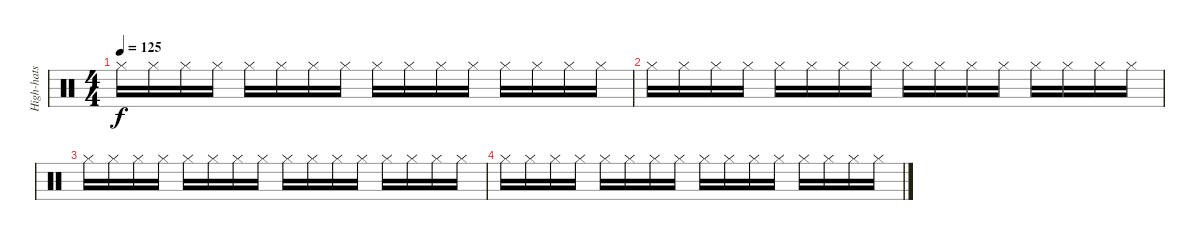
\track ("High-hats" "High-hats") {instrument percussion}
\staff {score}
\articulation defaults
\ts (4 4)
\tempo 125
\clef neutral
\ks c "Hi-Hat (closed)".16{dy f} "Hi-Hat (closed)".16 "Hi-Hat (closed)".16 "Hi-Hat (closed)".16 "Hi-Hat (closed)".16 "Hi-Hat (closed)".16 "Hi-Hat (closed)".16 "Hi-Hat (closed)".16 "Hi-Hat (closed)".16 "Hi-Hat (closed)".16 "Hi-Hat (closed)".16 "Hi-Hat (closed)".16 "Hi-Hat (closed)".16 "Hi-Hat (closed)".16 "Hi-Hat (closed)".16 "Hi-Hat (closed)".16
|
"Hi-Hat (closed)".16 "Hi-Hat (closed)".16 "Hi-Hat (closed)".16 "Hi-Hat (closed)".16 "Hi-Hat (closed)".16 "Hi-Hat (closed)".16 "Hi-Hat (closed)".16 "Hi-Hat (closed)".16 "Hi-Hat (closed)".16 "Hi-Hat (closed)".16 "Hi-Hat (closed)".16 "Hi-Hat (closed)".16 "Hi-Hat (closed)".16 "Hi-Hat (closed)".16 "Hi-Hat (closed)".16 "Hi-Hat (closed)".16 |
"Hi-Hat (closed)".16 "Hi-Hat (closed)".16 "Hi-Hat (closed)".16 "Hi-Hat (closed)".16 "Hi-Hat (closed)".16 "Hi-Hat (closed)".16 "Hi-Hat (closed)".16 "Hi-Hat (closed)".16 "Hi-Hat (closed)".16 "Hi-Hat (closed)".16 "Hi-Hat (closed)".16 "Hi-Hat (closed)".16 "Hi-Hat (closed)".16 "Hi-Hat (closed)".16 "Hi-Hat (closed)".16 "Hi-Hat (closed)".16 |
"Hi-Hat (closed)".16 "Hi-Hat (closed)".16 "Hi-Hat (closed)".16 "Hi-Hat (closed)".16 "Hi-Hat (closed)".16 "Hi-Hat (closed)".16 "Hi-Hat (closed)".16 "Hi-Hat (closed)".16 "Hi-Hat (closed)".16 "Hi-Hat (closed)".16 "Hi-Hat (closed)".16 "Hi-Hat (closed)".16 "Hi-Hat (closed)".16 "Hi-Hat (closed)".16 "Hi-Hat (closed)".16 "Hi-Hat (closed)".16
